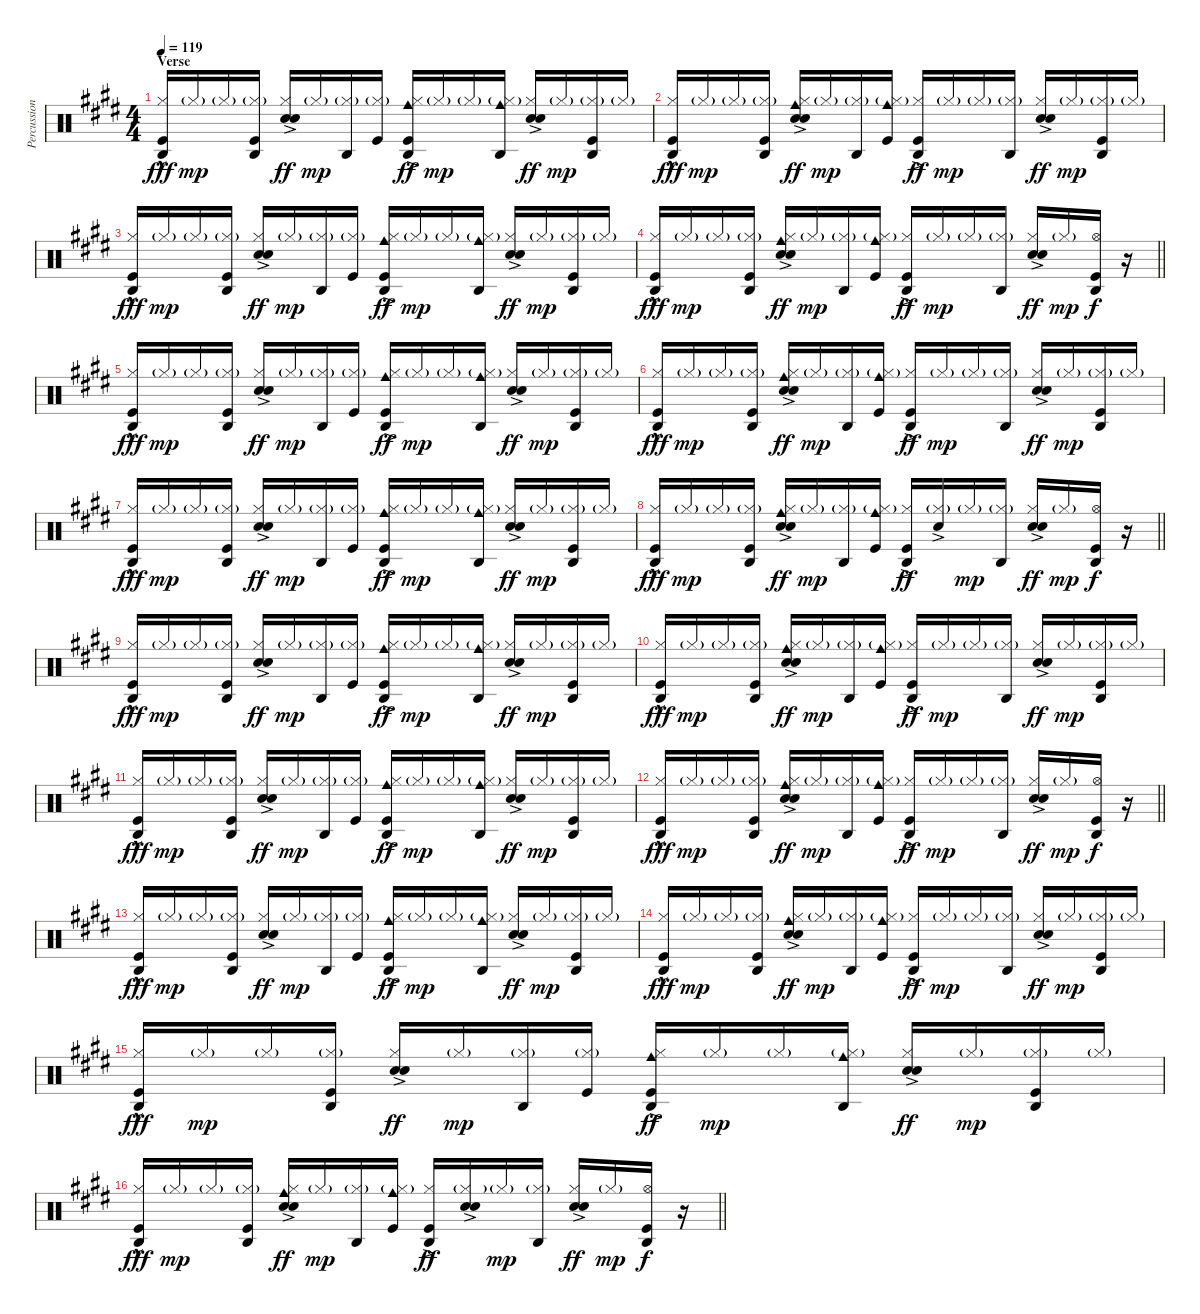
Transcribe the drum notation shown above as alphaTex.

\track ("Percussion" "Percussion") {instrument percussion}
\staff {score}
\articulation defaults
\ts (4 4)
\section ("" "Verse")
\tempo 119
\clef neutral
\ks e
("Agogo high (hit)" "Hi-Hat (closed)" "Kick (hit)"{hac}).16{dy fff} "Hi-Hat (closed)"{g}.16{dy mp} "Hi-Hat (closed)"{g}.16 ("Agogo high (hit)" "Hi-Hat (closed)"{g} "Kick (hit)").16 ("Hi-Hat (closed)" "Hand Clap (hit)"{ac} "Snare (hit) 2"{ac}).16{dy ff} "Hi-Hat (closed)"{g}.16{dy mp} ("Agogo high (hit)" "Hi-Hat (closed)"{g}).16 ("Hi-Hat (closed)"{g} "Kick (hit)").16 ("Agogo high (hit)" "Cowbell medium (hit)" "Hi-Hat (closed)" "Kick (hit)"{ac}).16{dy ff} "Hi-Hat (closed)"{g}.16{dy mp} "Hi-Hat (closed)"{g}.16 ("Agogo high (hit)" "Cowbell medium (hit)" "Hi-Hat (closed)"{g}).16 ("Hi-Hat (closed)" "Hand Clap (hit)"{ac} "Snare (hit) 2"{ac}).16{dy ff} "Hi-Hat (closed)"{g}.16{dy mp} ("Agogo high (hit)" "Hi-Hat (closed)"{g} "Kick (hit)").16 "Hi-Hat (closed)"{g}.16 |
("Agogo high (hit)" "Hi-Hat (closed)" "Kick (hit)"{hac}).16{dy fff} "Hi-Hat (closed)"{g}.16{dy mp} "Hi-Hat (closed)"{g}.16 ("Agogo high (hit)" "Hi-Hat (closed)"{g} "Kick (hit)").16 ("Cowbell medium (hit)" "Hi-Hat (closed)" "Hand Clap (hit)"{ac} "Snare (hit) 2"{ac}).16{dy ff} "Hi-Hat (closed)"{g}.16{dy mp} ("Agogo high (hit)" "Hi-Hat (closed)"{g}).16 ("Cowbell medium (hit)" "Hi-Hat (closed)"{g} "Kick (hit)").16 ("Agogo high (hit)" "Hi-Hat (closed)" "Kick (hit)"{ac}).16{dy ff} "Hi-Hat (closed)"{g}.16{dy mp} "Hi-Hat (closed)"{g}.16 ("Agogo high (hit)" "Hi-Hat (closed)"{g}).16 ("Hi-Hat (closed)" "Hand Clap (hit)"{ac} "Snare (hit) 2"{ac}).16{dy ff} "Hi-Hat (closed)"{g}.16{dy mp} ("Agogo high (hit)" "Hi-Hat (closed)"{g} "Kick (hit)").16 "Hi-Hat (closed)"{g}.16 |
("Agogo high (hit)" "Hi-Hat (closed)" "Kick (hit)"{hac}).16{dy fff} "Hi-Hat (closed)"{g}.16{dy mp} "Hi-Hat (closed)"{g}.16 ("Agogo high (hit)" "Hi-Hat (closed)"{g} "Kick (hit)").16 ("Hi-Hat (closed)" "Hand Clap (hit)"{ac} "Snare (hit) 2"{ac}).16{dy ff} "Hi-Hat (closed)"{g}.16{dy mp} ("Agogo high (hit)" "Hi-Hat (closed)"{g}).16 ("Hi-Hat (closed)"{g} "Kick (hit)").16 ("Agogo high (hit)" "Cowbell medium (hit)" "Hi-Hat (closed)" "Kick (hit)"{ac}).16{dy ff} "Hi-Hat (closed)"{g}.16{dy mp} "Hi-Hat (closed)"{g}.16 ("Agogo high (hit)" "Cowbell medium (hit)" "Hi-Hat (closed)"{g}).16 ("Hi-Hat (closed)" "Hand Clap (hit)"{ac} "Snare (hit) 2"{ac}).16{dy ff} "Hi-Hat (closed)"{g}.16{dy mp} ("Agogo high (hit)" "Hi-Hat (closed)"{g} "Kick (hit)").16 "Hi-Hat (closed)"{g}.16 |
\barLineRight lightlight
("Agogo high (hit)" "Hi-Hat (closed)" "Kick (hit)"{hac}).16{dy fff} "Hi-Hat (closed)"{g}.16{dy mp} "Hi-Hat (closed)"{g}.16 ("Agogo high (hit)" "Hi-Hat (closed)"{g} "Kick (hit)").16 ("Cowbell medium (hit)" "Hi-Hat (closed)" "Hand Clap (hit)"{ac} "Snare (hit) 2"{ac}).16{dy ff} "Hi-Hat (closed)"{g}.16{dy mp} ("Agogo high (hit)" "Hi-Hat (closed)"{g}).16 ("Cowbell medium (hit)" "Hi-Hat (closed)"{g} "Kick (hit)").16 ("Agogo high (hit)" "Hi-Hat (closed)" "Kick (hit)"{ac}).16{dy ff} "Hi-Hat (closed)"{g}.16{dy mp} "Hi-Hat (closed)"{g}.16 ("Agogo high (hit)" "Hi-Hat (closed)"{g}).16 ("Hi-Hat (closed)" "Hand Clap (hit)"{ac} "Snare (hit) 2"{ac}).16{dy ff} "Hi-Hat (closed)"{g}.16{dy mp} ("Agogo high (hit)" "Hi-Hat (open)" "Kick (hit)").16{dy f} r.16 |
("Agogo high (hit)" "Hi-Hat (closed)" "Kick (hit)"{hac}).16{dy fff} "Hi-Hat (closed)"{g}.16{dy mp} "Hi-Hat (closed)"{g}.16 ("Agogo high (hit)" "Hi-Hat (closed)"{g} "Kick (hit)").16 ("Hi-Hat (closed)" "Hand Clap (hit)"{ac} "Snare (hit) 2"{ac}).16{dy ff} "Hi-Hat (closed)"{g}.16{dy mp} ("Agogo high (hit)" "Hi-Hat (closed)"{g}).16 ("Hi-Hat (closed)"{g} "Kick (hit)").16 ("Agogo high (hit)" "Cowbell medium (hit)" "Hi-Hat (closed)" "Kick (hit)"{ac}).16{dy ff} "Hi-Hat (closed)"{g}.16{dy mp} "Hi-Hat (closed)"{g}.16 ("Agogo high (hit)" "Cowbell medium (hit)" "Hi-Hat (closed)"{g}).16 ("Hi-Hat (closed)" "Hand Clap (hit)"{ac} "Snare (hit) 2"{ac}).16{dy ff} "Hi-Hat (closed)"{g}.16{dy mp} ("Agogo high (hit)" "Hi-Hat (closed)"{g} "Kick (hit)").16 "Hi-Hat (closed)"{g}.16 |
("Agogo high (hit)" "Hi-Hat (closed)" "Kick (hit)"{hac}).16{dy fff} "Hi-Hat (closed)"{g}.16{dy mp} "Hi-Hat (closed)"{g}.16 ("Agogo high (hit)" "Hi-Hat (closed)"{g} "Kick (hit)").16 ("Cowbell medium (hit)" "Hi-Hat (closed)" "Hand Clap (hit)"{ac} "Snare (hit) 2"{ac}).16{dy ff} "Hi-Hat (closed)"{g}.16{dy mp} ("Agogo high (hit)" "Hi-Hat (closed)"{g}).16 ("Cowbell medium (hit)" "Hi-Hat (closed)"{g} "Kick (hit)").16 ("Agogo high (hit)" "Hi-Hat (closed)" "Kick (hit)"{ac}).16{dy ff} "Hi-Hat (closed)"{g}.16{dy mp} "Hi-Hat (closed)"{g}.16 ("Agogo high (hit)" "Hi-Hat (closed)"{g}).16 ("Hi-Hat (closed)" "Hand Clap (hit)"{ac} "Snare (hit) 2"{ac}).16{dy ff} "Hi-Hat (closed)"{g}.16{dy mp} ("Agogo high (hit)" "Hi-Hat (closed)"{g} "Kick (hit)").16 "Hi-Hat (closed)"{g}.16 |
("Agogo high (hit)" "Hi-Hat (closed)" "Kick (hit)"{hac}).16{dy fff} "Hi-Hat (closed)"{g}.16{dy mp} "Hi-Hat (closed)"{g}.16 ("Agogo high (hit)" "Hi-Hat (closed)"{g} "Kick (hit)").16 ("Hi-Hat (closed)" "Hand Clap (hit)"{ac} "Snare (hit) 2"{ac}).16{dy ff} "Hi-Hat (closed)"{g}.16{dy mp} ("Agogo high (hit)" "Hi-Hat (closed)"{g}).16 ("Hi-Hat (closed)"{g} "Kick (hit)").16 ("Agogo high (hit)" "Cowbell medium (hit)" "Hi-Hat (closed)" "Kick (hit)"{ac}).16{dy ff} "Hi-Hat (closed)"{g}.16{dy mp} "Hi-Hat (closed)"{g}.16 ("Agogo high (hit)" "Cowbell medium (hit)" "Hi-Hat (closed)"{g}).16 ("Hi-Hat (closed)" "Hand Clap (hit)"{ac} "Snare (hit) 2"{ac}).16{dy ff} "Hi-Hat (closed)"{g}.16{dy mp} ("Agogo high (hit)" "Hi-Hat (closed)"{g} "Kick (hit)").16 "Hi-Hat (closed)"{g}.16 |
\barLineRight lightlight
("Agogo high (hit)" "Hi-Hat (closed)" "Kick (hit)"{hac}).16{dy fff} "Hi-Hat (closed)"{g}.16{dy mp} "Hi-Hat (closed)"{g}.16 ("Agogo high (hit)" "Hi-Hat (closed)"{g} "Kick (hit)").16 ("Cowbell medium (hit)" "Hi-Hat (closed)" "Hand Clap (hit)"{ac} "Snare (hit) 2"{ac}).16{dy ff} "Hi-Hat (closed)"{g}.16{dy mp} ("Agogo high (hit)" "Hi-Hat (closed)"{g}).16 ("Cowbell medium (hit)" "Hi-Hat (closed)"{g} "Kick (hit)").16 ("Agogo high (hit)" "Hi-Hat (closed)" "Kick (hit)"{ac}).16{dy ff} ("Hi-Hat (closed)"{g} "Hand Clap (hit)"{ac}).16 "Hi-Hat (closed)"{g}.16{dy mp} ("Agogo high (hit)" "Hi-Hat (closed)"{g}).16 ("Hi-Hat (closed)" "Hand Clap (hit)"{ac} "Snare (hit) 2"{ac}).16{dy ff} "Hi-Hat (closed)"{g}.16{dy mp} ("Agogo high (hit)" "Hi-Hat (open)" "Kick (hit)").16{dy f} r.16 |
("Agogo high (hit)" "Hi-Hat (closed)" "Kick (hit)"{hac}).16{dy fff} "Hi-Hat (closed)"{g}.16{dy mp} "Hi-Hat (closed)"{g}.16 ("Agogo high (hit)" "Hi-Hat (closed)"{g} "Kick (hit)").16 ("Hi-Hat (closed)" "Hand Clap (hit)"{ac} "Snare (hit) 2"{ac}).16{dy ff} "Hi-Hat (closed)"{g}.16{dy mp} ("Agogo high (hit)" "Hi-Hat (closed)"{g}).16 ("Hi-Hat (closed)"{g} "Kick (hit)").16 ("Agogo high (hit)" "Cowbell medium (hit)" "Hi-Hat (closed)" "Kick (hit)"{ac}).16{dy ff} "Hi-Hat (closed)"{g}.16{dy mp} "Hi-Hat (closed)"{g}.16 ("Agogo high (hit)" "Cowbell medium (hit)" "Hi-Hat (closed)"{g}).16 ("Hi-Hat (closed)" "Hand Clap (hit)"{ac} "Snare (hit) 2"{ac}).16{dy ff} "Hi-Hat (closed)"{g}.16{dy mp} ("Agogo high (hit)" "Hi-Hat (closed)"{g} "Kick (hit)").16 "Hi-Hat (closed)"{g}.16 |
("Agogo high (hit)" "Hi-Hat (closed)" "Kick (hit)"{hac}).16{dy fff} "Hi-Hat (closed)"{g}.16{dy mp} "Hi-Hat (closed)"{g}.16 ("Agogo high (hit)" "Hi-Hat (closed)"{g} "Kick (hit)").16 ("Cowbell medium (hit)" "Hi-Hat (closed)" "Hand Clap (hit)"{ac} "Snare (hit) 2"{ac}).16{dy ff} "Hi-Hat (closed)"{g}.16{dy mp} ("Agogo high (hit)" "Hi-Hat (closed)"{g}).16 ("Cowbell medium (hit)" "Hi-Hat (closed)"{g} "Kick (hit)").16 ("Agogo high (hit)" "Hi-Hat (closed)" "Kick (hit)"{ac}).16{dy ff} "Hi-Hat (closed)"{g}.16{dy mp} "Hi-Hat (closed)"{g}.16 ("Agogo high (hit)" "Hi-Hat (closed)"{g}).16 ("Hi-Hat (closed)" "Hand Clap (hit)"{ac} "Snare (hit) 2"{ac}).16{dy ff} "Hi-Hat (closed)"{g}.16{dy mp} ("Agogo high (hit)" "Hi-Hat (closed)"{g} "Kick (hit)").16 "Hi-Hat (closed)"{g}.16 |
("Agogo high (hit)" "Hi-Hat (closed)" "Kick (hit)"{hac}).16{dy fff} "Hi-Hat (closed)"{g}.16{dy mp} "Hi-Hat (closed)"{g}.16 ("Agogo high (hit)" "Hi-Hat (closed)"{g} "Kick (hit)").16 ("Hi-Hat (closed)" "Hand Clap (hit)"{ac} "Snare (hit) 2"{ac}).16{dy ff} "Hi-Hat (closed)"{g}.16{dy mp} ("Agogo high (hit)" "Hi-Hat (closed)"{g}).16 ("Hi-Hat (closed)"{g} "Kick (hit)").16 ("Agogo high (hit)" "Cowbell medium (hit)" "Hi-Hat (closed)" "Kick (hit)"{ac}).16{dy ff} "Hi-Hat (closed)"{g}.16{dy mp} "Hi-Hat (closed)"{g}.16 ("Agogo high (hit)" "Cowbell medium (hit)" "Hi-Hat (closed)"{g}).16 ("Hi-Hat (closed)" "Hand Clap (hit)"{ac} "Snare (hit) 2"{ac}).16{dy ff} "Hi-Hat (closed)"{g}.16{dy mp} ("Agogo high (hit)" "Hi-Hat (closed)"{g} "Kick (hit)").16 "Hi-Hat (closed)"{g}.16 |
\barLineRight lightlight
("Agogo high (hit)" "Hi-Hat (closed)" "Kick (hit)"{hac}).16{dy fff} "Hi-Hat (closed)"{g}.16{dy mp} "Hi-Hat (closed)"{g}.16 ("Agogo high (hit)" "Hi-Hat (closed)"{g} "Kick (hit)").16 ("Cowbell medium (hit)" "Hi-Hat (closed)" "Hand Clap (hit)"{ac} "Snare (hit) 2"{ac}).16{dy ff} "Hi-Hat (closed)"{g}.16{dy mp} ("Agogo high (hit)" "Hi-Hat (closed)"{g}).16 ("Cowbell medium (hit)" "Hi-Hat (closed)"{g} "Kick (hit)").16 ("Agogo high (hit)" "Hi-Hat (closed)" "Kick (hit)"{ac}).16{dy ff} "Hi-Hat (closed)"{g}.16{dy mp} "Hi-Hat (closed)"{g}.16 ("Agogo high (hit)" "Hi-Hat (closed)"{g}).16 ("Hi-Hat (closed)" "Hand Clap (hit)"{ac} "Snare (hit) 2"{ac}).16{dy ff} "Hi-Hat (closed)"{g}.16{dy mp} ("Agogo high (hit)" "Hi-Hat (open)" "Kick (hit)").16{dy f} r.16 |
("Agogo high (hit)" "Hi-Hat (closed)" "Kick (hit)"{hac}).16{dy fff} "Hi-Hat (closed)"{g}.16{dy mp} "Hi-Hat (closed)"{g}.16 ("Agogo high (hit)" "Hi-Hat (closed)"{g} "Kick (hit)").16 ("Hi-Hat (closed)" "Hand Clap (hit)"{ac} "Snare (hit) 2"{ac}).16{dy ff} "Hi-Hat (closed)"{g}.16{dy mp} ("Agogo high (hit)" "Hi-Hat (closed)"{g}).16 ("Hi-Hat (closed)"{g} "Kick (hit)").16 ("Agogo high (hit)" "Cowbell medium (hit)" "Hi-Hat (closed)" "Kick (hit)"{ac}).16{dy ff} "Hi-Hat (closed)"{g}.16{dy mp} "Hi-Hat (closed)"{g}.16 ("Agogo high (hit)" "Cowbell medium (hit)" "Hi-Hat (closed)"{g}).16 ("Hi-Hat (closed)" "Hand Clap (hit)"{ac} "Snare (hit) 2"{ac}).16{dy ff} "Hi-Hat (closed)"{g}.16{dy mp} ("Agogo high (hit)" "Hi-Hat (closed)"{g} "Kick (hit)").16 "Hi-Hat (closed)"{g}.16 |
("Agogo high (hit)" "Hi-Hat (closed)" "Kick (hit)"{hac}).16{dy fff} "Hi-Hat (closed)"{g}.16{dy mp} "Hi-Hat (closed)"{g}.16 ("Agogo high (hit)" "Hi-Hat (closed)"{g} "Kick (hit)").16 ("Cowbell medium (hit)" "Hi-Hat (closed)" "Hand Clap (hit)"{ac} "Snare (hit) 2"{ac}).16{dy ff} "Hi-Hat (closed)"{g}.16{dy mp} ("Agogo high (hit)" "Hi-Hat (closed)"{g}).16 ("Cowbell medium (hit)" "Hi-Hat (closed)"{g} "Kick (hit)").16 ("Agogo high (hit)" "Hi-Hat (closed)" "Kick (hit)"{ac}).16{dy ff} "Hi-Hat (closed)"{g}.16{dy mp} "Hi-Hat (closed)"{g}.16 ("Agogo high (hit)" "Hi-Hat (closed)"{g}).16 ("Hi-Hat (closed)" "Hand Clap (hit)"{ac} "Snare (hit) 2"{ac}).16{dy ff} "Hi-Hat (closed)"{g}.16{dy mp} ("Agogo high (hit)" "Hi-Hat (closed)"{g} "Kick (hit)").16 "Hi-Hat (closed)"{g}.16 |
("Agogo high (hit)" "Hi-Hat (closed)" "Kick (hit)"{hac}).16{dy fff} "Hi-Hat (closed)"{g}.16{dy mp} "Hi-Hat (closed)"{g}.16 ("Agogo high (hit)" "Hi-Hat (closed)"{g} "Kick (hit)").16 ("Hi-Hat (closed)" "Hand Clap (hit)"{ac} "Snare (hit) 2"{ac}).16{dy ff} "Hi-Hat (closed)"{g}.16{dy mp} ("Agogo high (hit)" "Hi-Hat (closed)"{g}).16 ("Hi-Hat (closed)"{g} "Kick (hit)").16 ("Agogo high (hit)" "Cowbell medium (hit)" "Hi-Hat (closed)" "Kick (hit)"{ac}).16{dy ff} "Hi-Hat (closed)"{g}.16{dy mp} "Hi-Hat (closed)"{g}.16 ("Agogo high (hit)" "Cowbell medium (hit)" "Hi-Hat (closed)"{g}).16 ("Hi-Hat (closed)" "Hand Clap (hit)"{ac} "Snare (hit) 2"{ac}).16{dy ff} "Hi-Hat (closed)"{g}.16{dy mp} ("Agogo high (hit)" "Hi-Hat (closed)"{g} "Kick (hit)").16 "Hi-Hat (closed)"{g}.16 |
\barLineRight lightlight
("Agogo high (hit)" "Hi-Hat (closed)" "Kick (hit)"{hac}).16{dy fff} "Hi-Hat (closed)"{g}.16{dy mp} "Hi-Hat (closed)"{g}.16 ("Agogo high (hit)" "Hi-Hat (closed)"{g} "Kick (hit)").16 ("Cowbell medium (hit)" "Hi-Hat (closed)" "Hand Clap (hit)"{ac} "Snare (hit) 2"{ac}).16{dy ff} "Hi-Hat (closed)"{g}.16{dy mp} ("Agogo high (hit)" "Hi-Hat (closed)"{g}).16 ("Cowbell medium (hit)" "Hi-Hat (closed)"{g} "Kick (hit)").16 ("Agogo high (hit)" "Hi-Hat (closed)" "Kick (hit)"{ac}).16{dy ff} ("Hi-Hat (closed)"{g} "Hand Clap (hit)"{ac} "Snare (hit) 2"{ac}).16 "Hi-Hat (closed)"{g}.16{dy mp} ("Agogo high (hit)" "Hi-Hat (closed)"{g}).16 ("Hi-Hat (closed)" "Hand Clap (hit)"{ac} "Snare (hit) 2"{ac}).16{dy ff} "Hi-Hat (closed)"{g}.16{dy mp} ("Agogo high (hit)" "Hi-Hat (open)" "Kick (hit)").16{dy f} r.16
